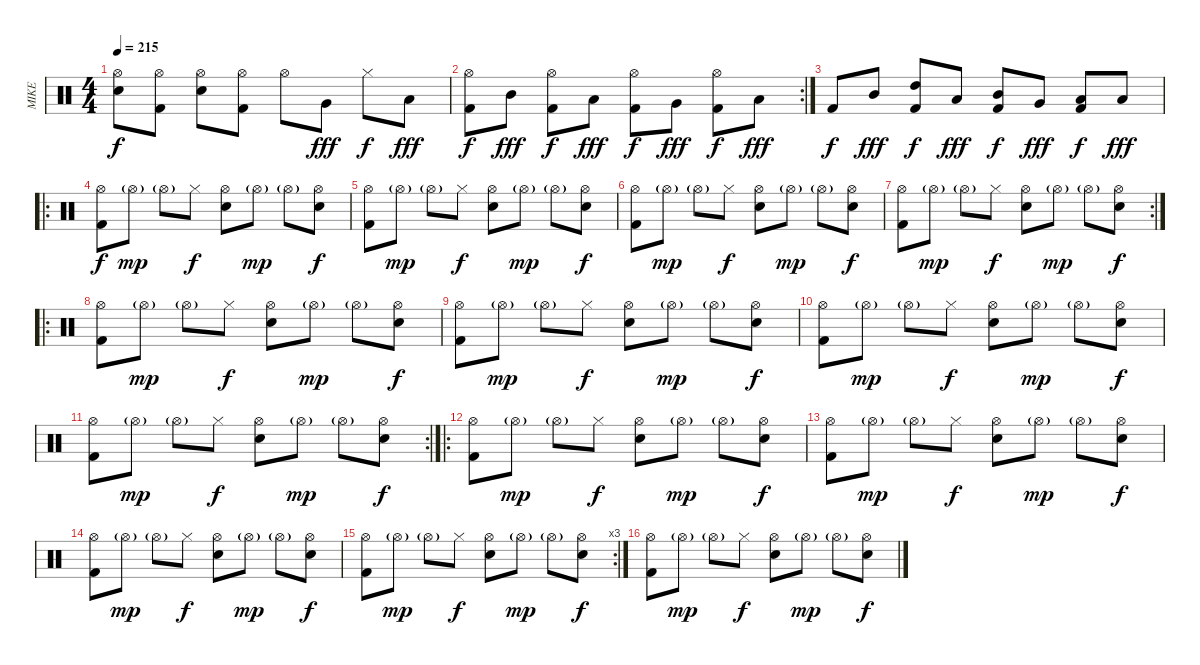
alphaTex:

\track ("MIKE" "MIKE") {instrument percussion}
\staff {score}
\articulation defaults
\ts (4 4)
\tempo 215
\clef neutral
\ks c
("Snare (hit) 2" "Hi-Hat (open)").8{dy f} ("Kick (hit) 2" "Hi-Hat (open)").8 ("Snare (hit) 2" "Hi-Hat (open)").8 ("Kick (hit) 2" "Hi-Hat (open)").8 "Hi-Hat (open)".8 "Very Low Tom (hit)".8{dy fff} "Hi-Hat (closed)".8{dy f} "Low Tom (hit)".8{dy fff} |
\rc 2
("Kick (hit) 2" "Hi-Hat (open)").8{dy f} "Mid Tom (hit)".8{dy fff} ("Kick (hit) 2" "Hi-Hat (open)").8{dy f} "Low Tom (hit)".8{dy fff} ("Kick (hit) 2" "Hi-Hat (open)").8{dy f} "Very Low Tom (hit)".8{dy fff} ("Kick (hit) 2" "Hi-Hat (open)").8{dy f} "Low Floor Tom (hit)".8{dy fff} |
"Kick (hit) 2".8{dy f} "Mid Tom (hit)".8{dy fff} ("High Tom (hit)" "Kick (hit) 2").8{dy f} "Low Tom (hit)".8{dy fff} ("Mid Tom (hit)" "Kick (hit) 2").8{dy f} "Very Low Tom (hit)".8{dy fff} ("Low Tom (hit)" "Kick (hit) 2").8{dy f} "Low Floor Tom (hit)".8{dy fff} |
\ro
("Hi-Hat (open)" "Kick (hit) 2").8{dy f} "Hi-Hat (open)"{g}.8{dy mp} "Hi-Hat (open)"{g}.8 "Hi-Hat (closed)".8{dy f} ("Hi-Hat (open)" "Snare (hit) 2").8 "Hi-Hat (open)"{g}.8{dy mp} "Hi-Hat (open)"{g}.8 ("Hi-Hat (open)" "Snare (hit) 2").8{dy f} |
("Hi-Hat (open)" "Kick (hit) 2").8 "Hi-Hat (open)"{g}.8{dy mp} "Hi-Hat (open)"{g}.8 "Hi-Hat (closed)".8{dy f} ("Hi-Hat (open)" "Snare (hit) 2").8 "Hi-Hat (open)"{g}.8{dy mp} "Hi-Hat (open)"{g}.8 ("Hi-Hat (open)" "Snare (hit) 2").8{dy f} |
("Hi-Hat (open)" "Kick (hit) 2").8 "Hi-Hat (open)"{g}.8{dy mp} "Hi-Hat (open)"{g}.8 "Hi-Hat (closed)".8{dy f} ("Hi-Hat (open)" "Snare (hit) 2").8 "Hi-Hat (open)"{g}.8{dy mp} "Hi-Hat (open)"{g}.8 ("Hi-Hat (open)" "Snare (hit) 2").8{dy f} |
\rc 2
("Hi-Hat (open)" "Kick (hit) 2").8 "Hi-Hat (open)"{g}.8{dy mp} "Hi-Hat (open)"{g}.8 "Hi-Hat (closed)".8{dy f} ("Hi-Hat (open)" "Snare (hit) 2").8 "Hi-Hat (open)"{g}.8{dy mp} "Hi-Hat (open)"{g}.8 ("Hi-Hat (open)" "Snare (hit) 2").8{dy f} |
\ro
("Hi-Hat (open)" "Kick (hit) 2").8 "Hi-Hat (open)"{g}.8{dy mp} "Hi-Hat (open)"{g}.8 "Hi-Hat (closed)".8{dy f} ("Hi-Hat (open)" "Snare (hit) 2").8 "Hi-Hat (open)"{g}.8{dy mp} "Hi-Hat (open)"{g}.8 ("Hi-Hat (open)" "Snare (hit) 2").8{dy f} |
("Hi-Hat (open)" "Kick (hit) 2").8 "Hi-Hat (open)"{g}.8{dy mp} "Hi-Hat (open)"{g}.8 "Hi-Hat (closed)".8{dy f} ("Hi-Hat (open)" "Snare (hit) 2").8 "Hi-Hat (open)"{g}.8{dy mp} "Hi-Hat (open)"{g}.8 ("Hi-Hat (open)" "Snare (hit) 2").8{dy f} |
("Hi-Hat (open)" "Kick (hit) 2").8 "Hi-Hat (open)"{g}.8{dy mp} "Hi-Hat (open)"{g}.8 "Hi-Hat (closed)".8{dy f} ("Hi-Hat (open)" "Snare (hit) 2").8 "Hi-Hat (open)"{g}.8{dy mp} "Hi-Hat (open)"{g}.8 ("Hi-Hat (open)" "Snare (hit) 2").8{dy f} |
\rc 2
("Hi-Hat (open)" "Kick (hit) 2").8 "Hi-Hat (open)"{g}.8{dy mp} "Hi-Hat (open)"{g}.8 "Hi-Hat (closed)".8{dy f} ("Hi-Hat (open)" "Snare (hit) 2").8 "Hi-Hat (open)"{g}.8{dy mp} "Hi-Hat (open)"{g}.8 ("Hi-Hat (open)" "Snare (hit) 2").8{dy f} |
\ro
("Hi-Hat (open)" "Kick (hit) 2").8 "Hi-Hat (open)"{g}.8{dy mp} "Hi-Hat (open)"{g}.8 "Hi-Hat (closed)".8{dy f} ("Hi-Hat (open)" "Snare (hit) 2").8 "Hi-Hat (open)"{g}.8{dy mp} "Hi-Hat (open)"{g}.8 ("Hi-Hat (open)" "Snare (hit) 2").8{dy f} |
("Hi-Hat (open)" "Kick (hit) 2").8 "Hi-Hat (open)"{g}.8{dy mp} "Hi-Hat (open)"{g}.8 "Hi-Hat (closed)".8{dy f} ("Hi-Hat (open)" "Snare (hit) 2").8 "Hi-Hat (open)"{g}.8{dy mp} "Hi-Hat (open)"{g}.8 ("Hi-Hat (open)" "Snare (hit) 2").8{dy f} |
("Hi-Hat (open)" "Kick (hit) 2").8 "Hi-Hat (open)"{g}.8{dy mp} "Hi-Hat (open)"{g}.8 "Hi-Hat (closed)".8{dy f} ("Hi-Hat (open)" "Snare (hit) 2").8 "Hi-Hat (open)"{g}.8{dy mp} "Hi-Hat (open)"{g}.8 ("Hi-Hat (open)" "Snare (hit) 2").8{dy f} |
\rc 3
("Hi-Hat (open)" "Kick (hit) 2").8 "Hi-Hat (open)"{g}.8{dy mp} "Hi-Hat (open)"{g}.8 "Hi-Hat (closed)".8{dy f} ("Hi-Hat (open)" "Snare (hit) 2").8 "Hi-Hat (open)"{g}.8{dy mp} "Hi-Hat (open)"{g}.8 ("Hi-Hat (open)" "Snare (hit) 2").8{dy f} |
("Hi-Hat (open)" "Kick (hit) 2").8 "Hi-Hat (open)"{g}.8{dy mp} "Hi-Hat (open)"{g}.8 "Hi-Hat (closed)".8{dy f} ("Hi-Hat (open)" "Snare (hit) 2").8 "Hi-Hat (open)"{g}.8{dy mp} "Hi-Hat (open)"{g}.8 ("Hi-Hat (open)" "Snare (hit) 2").8{dy f}
